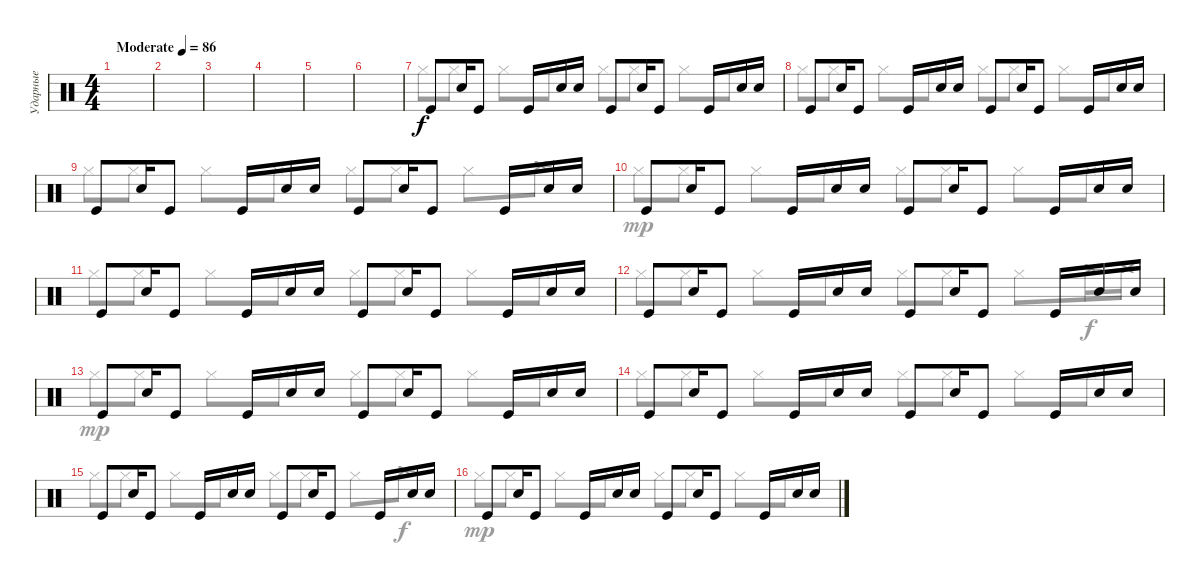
\track ("Ударные" "Ударные") {instrument percussion}
\staff {score}
\articulation defaults
\voice
\ts (4 4)
\tempo (86 "Moderate")
\clef neutral
\ks c
|
|
|
|
|
|
"Kick (hit)".8 "Electric Snare (hit)".16 "Kick (hit)".8 "Kick (hit)".16 "Electric Snare (hit)".16 "Electric Snare (hit)".16 "Kick (hit)".8 "Electric Snare (hit)".16 "Kick (hit)".8 "Kick (hit)".16 "Electric Snare (hit)".16 "Electric Snare (hit)".16 |
"Kick (hit)".8 "Electric Snare (hit)".16 "Kick (hit)".8 "Kick (hit)".16 "Electric Snare (hit)".16 "Electric Snare (hit)".16 "Kick (hit)".8 "Electric Snare (hit)".16 "Kick (hit)".8 "Kick (hit)".16 "Electric Snare (hit)".16 "Electric Snare (hit)".16 |
"Kick (hit)".8 "Electric Snare (hit)".16 "Kick (hit)".8 "Kick (hit)".16 "Electric Snare (hit)".16 "Electric Snare (hit)".16 "Kick (hit)".8 "Electric Snare (hit)".16 "Kick (hit)".8 "Kick (hit)".16 "Electric Snare (hit)".16 "Electric Snare (hit)".16 |
"Kick (hit)".8 "Electric Snare (hit)".16 "Kick (hit)".8 "Kick (hit)".16 "Electric Snare (hit)".16 "Electric Snare (hit)".16 "Kick (hit)".8 "Electric Snare (hit)".16 "Kick (hit)".8 "Kick (hit)".16 "Electric Snare (hit)".16 "Electric Snare (hit)".16 |
"Kick (hit)".8 "Electric Snare (hit)".16 "Kick (hit)".8 "Kick (hit)".16 "Electric Snare (hit)".16 "Electric Snare (hit)".16 "Kick (hit)".8 "Electric Snare (hit)".16 "Kick (hit)".8 "Kick (hit)".16 "Electric Snare (hit)".16 "Electric Snare (hit)".16 |
"Kick (hit)".8 "Electric Snare (hit)".16 "Kick (hit)".8 "Kick (hit)".16 "Electric Snare (hit)".16 "Electric Snare (hit)".16 "Kick (hit)".8 "Electric Snare (hit)".16 "Kick (hit)".8 "Kick (hit)".16 "Electric Snare (hit)".16 "Electric Snare (hit)".16 |
"Kick (hit)".8 "Electric Snare (hit)".16 "Kick (hit)".8 "Kick (hit)".16 "Electric Snare (hit)".16 "Electric Snare (hit)".16 "Kick (hit)".8 "Electric Snare (hit)".16 "Kick (hit)".8 "Kick (hit)".16 "Electric Snare (hit)".16 "Electric Snare (hit)".16 |
"Kick (hit)".8 "Electric Snare (hit)".16 "Kick (hit)".8 "Kick (hit)".16 "Electric Snare (hit)".16 "Electric Snare (hit)".16 "Kick (hit)".8 "Electric Snare (hit)".16 "Kick (hit)".8 "Kick (hit)".16 "Electric Snare (hit)".16 "Electric Snare (hit)".16 |
"Kick (hit)".8 "Electric Snare (hit)".16 "Kick (hit)".8 "Kick (hit)".16 "Electric Snare (hit)".16 "Electric Snare (hit)".16 "Kick (hit)".8 "Electric Snare (hit)".16 "Kick (hit)".8 "Kick (hit)".16 "Electric Snare (hit)".16 "Electric Snare (hit)".16 |
"Kick (hit)".8 "Electric Snare (hit)".16 "Kick (hit)".8 "Kick (hit)".16 "Electric Snare (hit)".16 "Electric Snare (hit)".16 "Kick (hit)".8 "Electric Snare (hit)".16 "Kick (hit)".8 "Kick (hit)".16 "Electric Snare (hit)".16 "Electric Snare (hit)".16
\voice
\clef neutral
\ottava regular
\simile none
\ks c
|
|
|
|
|
|
"Hi-Hat (closed)".8 "Hi-Hat (closed)".8 "Hi-Hat (closed)".8 "Hi-Hat (closed)".8 "Hi-Hat (closed)".8 "Hi-Hat (closed)".8 "Hi-Hat (closed)".8 "Hi-Hat (closed)".8 |
"Hi-Hat (closed)".8 "Hi-Hat (closed)".8 "Hi-Hat (closed)".8 "Hi-Hat (closed)".8 "Hi-Hat (closed)".8 "Hi-Hat (closed)".8 "Hi-Hat (closed)".8 "Hi-Hat (closed)".8 |
"Hi-Hat (closed)".8 "Hi-Hat (closed)".8 "Hi-Hat (closed)".8 "Hi-Hat (closed)".8 "Hi-Hat (closed)".8 "Hi-Hat (closed)".8 "Hi-Hat (closed)".8 "Crash high (hit)".8{dy f} |
"Hi-Hat (closed)".8{dy mp} "Hi-Hat (closed)".8 "Hi-Hat (closed)".8 "Hi-Hat (closed)".8 "Hi-Hat (closed)".8 "Hi-Hat (closed)".8 "Hi-Hat (closed)".8 "Hi-Hat (closed)".8 |
"Hi-Hat (closed)".8 "Hi-Hat (closed)".8 "Hi-Hat (closed)".8 "Hi-Hat (closed)".8 "Hi-Hat (closed)".8 "Hi-Hat (closed)".8 "Hi-Hat (closed)".8 "Hi-Hat (closed)".8 |
"Hi-Hat (closed)".8 "Hi-Hat (closed)".8 "Hi-Hat (closed)".8 "Hi-Hat (closed)".8 "Hi-Hat (closed)".8 "Hi-Hat (closed)".8 "Hi-Hat (closed)".8 "Crash high (hit)".16{dy f} "Crash high (hit)".16 |
"Hi-Hat (closed)".8{dy mp} "Hi-Hat (closed)".8 "Hi-Hat (closed)".8 "Hi-Hat (closed)".8 "Hi-Hat (closed)".8 "Hi-Hat (closed)".8 "Hi-Hat (closed)".8 "Hi-Hat (closed)".8 |
"Hi-Hat (closed)".8 "Hi-Hat (closed)".8 "Hi-Hat (closed)".8 "Hi-Hat (closed)".8 "Hi-Hat (closed)".8 "Hi-Hat (closed)".8 "Hi-Hat (closed)".8 "Hi-Hat (closed)".8 |
"Hi-Hat (closed)".8 "Hi-Hat (closed)".8 "Hi-Hat (closed)".8 "Hi-Hat (closed)".8 "Hi-Hat (closed)".8 "Hi-Hat (closed)".8 "Hi-Hat (closed)".8 "Crash high (hit)".8{dy f} |
"Hi-Hat (closed)".8{dy mp} "Hi-Hat (closed)".8 "Hi-Hat (closed)".8 "Hi-Hat (closed)".8 "Hi-Hat (closed)".8 "Hi-Hat (closed)".8 "Hi-Hat (closed)".8 "Hi-Hat (closed)".8
